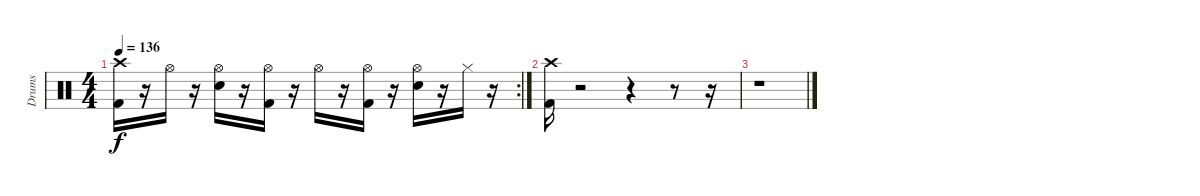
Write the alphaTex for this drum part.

\track ("Drums" "Drums") {instrument percussion}
\staff {score}
\articulation defaults
\rc 2
\ts (4 4)
\tempo 136
\clef neutral
\ks c
("Kick (hit) 2" "Crash high (hit)").16{dy f} r.16 "Hi-Hat (open)".16 r.16 ("Electric Snare (hit)" "Hi-Hat (open)").16 r.16 ("Kick (hit) 2" "Hi-Hat (open)").16 r.16 "Hi-Hat (open)".16 r.16 ("Kick (hit) 2" "Hi-Hat (open)").16 r.16 ("Electric Snare (hit)" "Hi-Hat (open)").16 r.16 "Hi-Hat (closed)".16 r.16 |
("Kick (hit) 2" "Crash high (hit)").16 r.2 r.4 r.8 r.16 |
r.1
